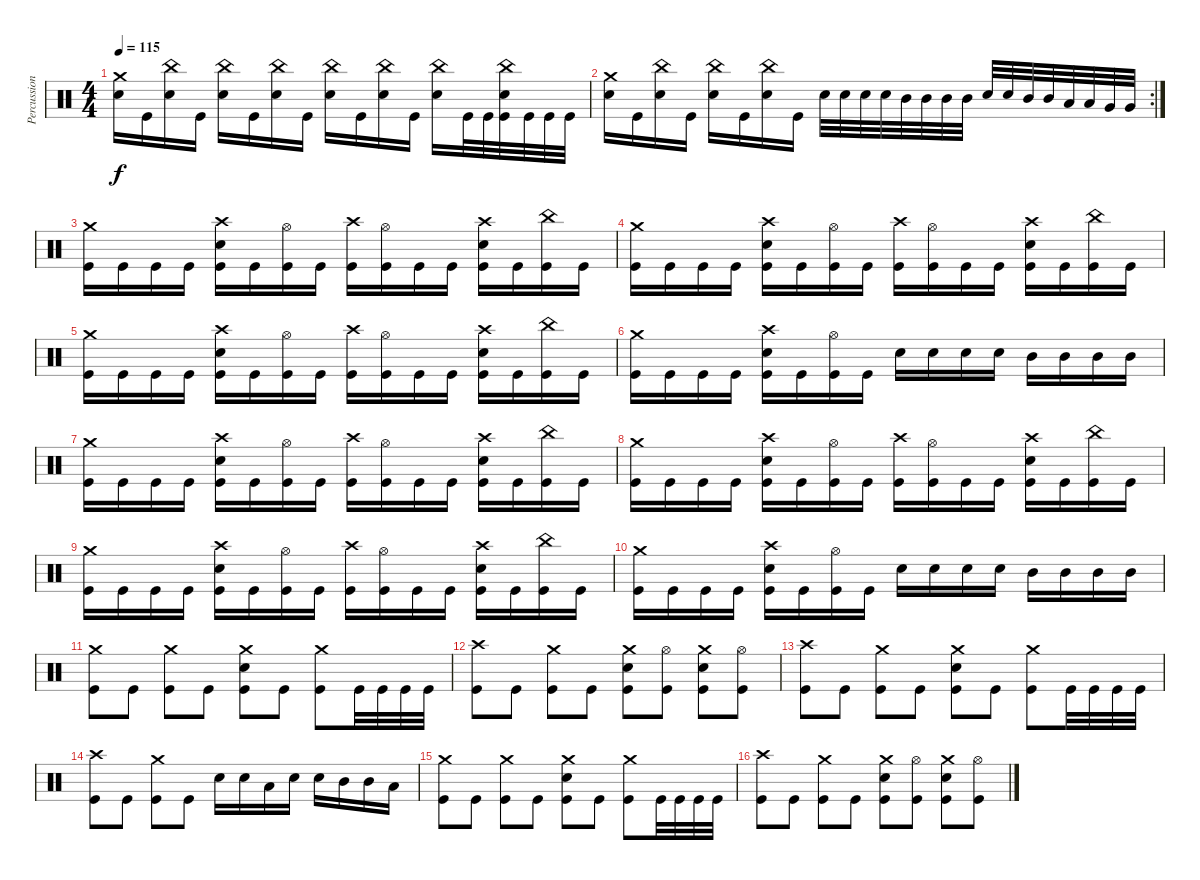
\track ("Percussion" "Percussion") {instrument percussion}
\staff {score}
\articulation defaults
\ts (4 4)
\tempo 115
\clef neutral
\ks c
("Crash medium (hit)" "Electric Snare (hit)").16{dy f} "Kick (hit)".16 ("China (hit)" "Electric Snare (hit)").16 "Kick (hit)".16 ("China (hit)" "Electric Snare (hit)").16 "Kick (hit)".16 ("China (hit)" "Electric Snare (hit)").16 "Kick (hit)".16 ("China (hit)" "Electric Snare (hit)").16 "Kick (hit)".16 ("China (hit)" "Electric Snare (hit)").16 "Kick (hit)".16 ("China (hit)" "Electric Snare (hit)").16 "Kick (hit)".32 "Kick (hit)".32 ("China (hit)" "Electric Snare (hit)" "Kick (hit)").32 "Kick (hit)".32 "Kick (hit)".32 "Kick (hit)".32 |
\rc 2
("Crash medium (hit)" "Electric Snare (hit)").16 "Kick (hit)".16 ("China (hit)" "Electric Snare (hit)").16 "Kick (hit)".16 ("China (hit)" "Electric Snare (hit)").16 "Kick (hit)".16 ("China (hit)" "Electric Snare (hit)").16 "Kick (hit)".16 "Electric Snare (hit)".32 "Electric Snare (hit)".32 "Electric Snare (hit)".32 "Electric Snare (hit)".32 "Mid Tom (hit)".32 "Mid Tom (hit)".32 "Mid Tom (hit)".32 "Mid Tom (hit)".32 "Electric Snare (hit)".32 "Electric Snare (hit)".32 "Mid Tom (hit)".32 "Mid Tom (hit)".32 "Low Tom (hit)".32 "Low Tom (hit)".32 "Very Low Tom (hit)".32 "Very Low Tom (hit)".32 |
("Crash medium (hit)" "Kick (hit)").16 "Kick (hit)".16 "Kick (hit)".16 "Kick (hit)".16 ("Crash high (hit)" "Electric Snare (hit)" "Kick (hit)").16 "Kick (hit)".16 ("Hi-Hat (open)" "Kick (hit)").16 "Kick (hit)".16 ("Crash high (hit)" "Kick (hit)").16 ("Hi-Hat (open)" "Kick (hit)").16 "Kick (hit)".16 "Kick (hit)".16 ("Crash high (hit)" "Electric Snare (hit)" "Kick (hit)").16 "Kick (hit)".16 ("China (hit)" "Kick (hit)").16 "Kick (hit)".16 |
("Crash medium (hit)" "Kick (hit)").16 "Kick (hit)".16 "Kick (hit)".16 "Kick (hit)".16 ("Crash high (hit)" "Electric Snare (hit)" "Kick (hit)").16 "Kick (hit)".16 ("Hi-Hat (open)" "Kick (hit)").16 "Kick (hit)".16 ("Crash high (hit)" "Kick (hit)").16 ("Hi-Hat (open)" "Kick (hit)").16 "Kick (hit)".16 "Kick (hit)".16 ("Crash high (hit)" "Electric Snare (hit)" "Kick (hit)").16 "Kick (hit)".16 ("China (hit)" "Kick (hit)").16 "Kick (hit)".16 |
("Crash medium (hit)" "Kick (hit)").16 "Kick (hit)".16 "Kick (hit)".16 "Kick (hit)".16 ("Crash high (hit)" "Electric Snare (hit)" "Kick (hit)").16 "Kick (hit)".16 ("Hi-Hat (open)" "Kick (hit)").16 "Kick (hit)".16 ("Crash high (hit)" "Kick (hit)").16 ("Hi-Hat (open)" "Kick (hit)").16 "Kick (hit)".16 "Kick (hit)".16 ("Crash high (hit)" "Electric Snare (hit)" "Kick (hit)").16 "Kick (hit)".16 ("China (hit)" "Kick (hit)").16 "Kick (hit)".16 |
("Crash medium (hit)" "Kick (hit)").16 "Kick (hit)".16 "Kick (hit)".16 "Kick (hit)".16 ("Crash high (hit)" "Electric Snare (hit)" "Kick (hit)").16 "Kick (hit)".16 ("Hi-Hat (open)" "Kick (hit)").16 "Kick (hit)".16 "Electric Snare (hit)".16 "Electric Snare (hit)".16 "Electric Snare (hit)".16 "Electric Snare (hit)".16 "Mid Tom (hit)".16 "Mid Tom (hit)".16 "Mid Tom (hit)".16 "Mid Tom (hit)".16 |
("Crash medium (hit)" "Kick (hit)").16 "Kick (hit)".16 "Kick (hit)".16 "Kick (hit)".16 ("Crash high (hit)" "Electric Snare (hit)" "Kick (hit)").16 "Kick (hit)".16 ("Hi-Hat (open)" "Kick (hit)").16 "Kick (hit)".16 ("Crash high (hit)" "Kick (hit)").16 ("Hi-Hat (open)" "Kick (hit)").16 "Kick (hit)".16 "Kick (hit)".16 ("Crash high (hit)" "Electric Snare (hit)" "Kick (hit)").16 "Kick (hit)".16 ("China (hit)" "Kick (hit)").16 "Kick (hit)".16 |
("Crash medium (hit)" "Kick (hit)").16 "Kick (hit)".16 "Kick (hit)".16 "Kick (hit)".16 ("Crash high (hit)" "Electric Snare (hit)" "Kick (hit)").16 "Kick (hit)".16 ("Hi-Hat (open)" "Kick (hit)").16 "Kick (hit)".16 ("Crash high (hit)" "Kick (hit)").16 ("Hi-Hat (open)" "Kick (hit)").16 "Kick (hit)".16 "Kick (hit)".16 ("Crash high (hit)" "Electric Snare (hit)" "Kick (hit)").16 "Kick (hit)".16 ("China (hit)" "Kick (hit)").16 "Kick (hit)".16 |
("Crash medium (hit)" "Kick (hit)").16 "Kick (hit)".16 "Kick (hit)".16 "Kick (hit)".16 ("Crash high (hit)" "Electric Snare (hit)" "Kick (hit)").16 "Kick (hit)".16 ("Hi-Hat (open)" "Kick (hit)").16 "Kick (hit)".16 ("Crash high (hit)" "Kick (hit)").16 ("Hi-Hat (open)" "Kick (hit)").16 "Kick (hit)".16 "Kick (hit)".16 ("Crash high (hit)" "Electric Snare (hit)" "Kick (hit)").16 "Kick (hit)".16 ("China (hit)" "Kick (hit)").16 "Kick (hit)".16 |
("Crash medium (hit)" "Kick (hit)").16 "Kick (hit)".16 "Kick (hit)".16 "Kick (hit)".16 ("Crash high (hit)" "Electric Snare (hit)" "Kick (hit)").16 "Kick (hit)".16 ("Hi-Hat (open)" "Kick (hit)").16 "Kick (hit)".16 "Electric Snare (hit)".16 "Electric Snare (hit)".16 "Electric Snare (hit)".16 "Electric Snare (hit)".16 "Mid Tom (hit)".16 "Mid Tom (hit)".16 "Mid Tom (hit)".16 "Mid Tom (hit)".16 |
("Crash medium (hit)" "Kick (hit)").8 "Kick (hit)".8 ("Crash medium (hit)" "Kick (hit)").8 "Kick (hit)".8 ("Crash medium (hit)" "Electric Snare (hit)" "Kick (hit)").8 "Kick (hit)".8 ("Crash medium (hit)" "Kick (hit)").8 "Kick (hit)".32 "Kick (hit)".32 "Kick (hit)".32 "Kick (hit)".32 |
("Crash high (hit)" "Kick (hit)").8 "Kick (hit)".8 ("Crash medium (hit)" "Kick (hit)").8 "Kick (hit)".8 ("Crash medium (hit)" "Electric Snare (hit)" "Kick (hit)").8 ("Hi-Hat (open)" "Kick (hit)").8 ("Crash medium (hit)" "Electric Snare (hit)" "Kick (hit)").8 ("Hi-Hat (open)" "Kick (hit)").8 |
("Crash high (hit)" "Kick (hit)").8 "Kick (hit)".8 ("Crash medium (hit)" "Kick (hit)").8 "Kick (hit)".8 ("Crash medium (hit)" "Electric Snare (hit)" "Kick (hit)").8 "Kick (hit)".8 ("Crash medium (hit)" "Kick (hit)").8 "Kick (hit)".32 "Kick (hit)".32 "Kick (hit)".32 "Kick (hit)".32 |
("Crash high (hit)" "Kick (hit)").8 "Kick (hit)".8 ("Crash medium (hit)" "Kick (hit)").8 "Kick (hit)".8 "Electric Snare (hit)".16 "Electric Snare (hit)".16 "Low Tom (hit)".16 "Electric Snare (hit)".16 "Electric Snare (hit)".16 "Mid Tom (hit)".16 "Mid Tom (hit)".16 "Low Tom (hit)".16 |
("Crash medium (hit)" "Kick (hit)").8 "Kick (hit)".8 ("Crash medium (hit)" "Kick (hit)").8 "Kick (hit)".8 ("Crash medium (hit)" "Electric Snare (hit)" "Kick (hit)").8 "Kick (hit)".8 ("Crash medium (hit)" "Kick (hit)").8 "Kick (hit)".32 "Kick (hit)".32 "Kick (hit)".32 "Kick (hit)".32 |
("Crash high (hit)" "Kick (hit)").8 "Kick (hit)".8 ("Crash medium (hit)" "Kick (hit)").8 "Kick (hit)".8 ("Crash medium (hit)" "Electric Snare (hit)" "Kick (hit)").8 ("Hi-Hat (open)" "Kick (hit)").8 ("Crash medium (hit)" "Electric Snare (hit)" "Kick (hit)").8 ("Hi-Hat (open)" "Kick (hit)").8
